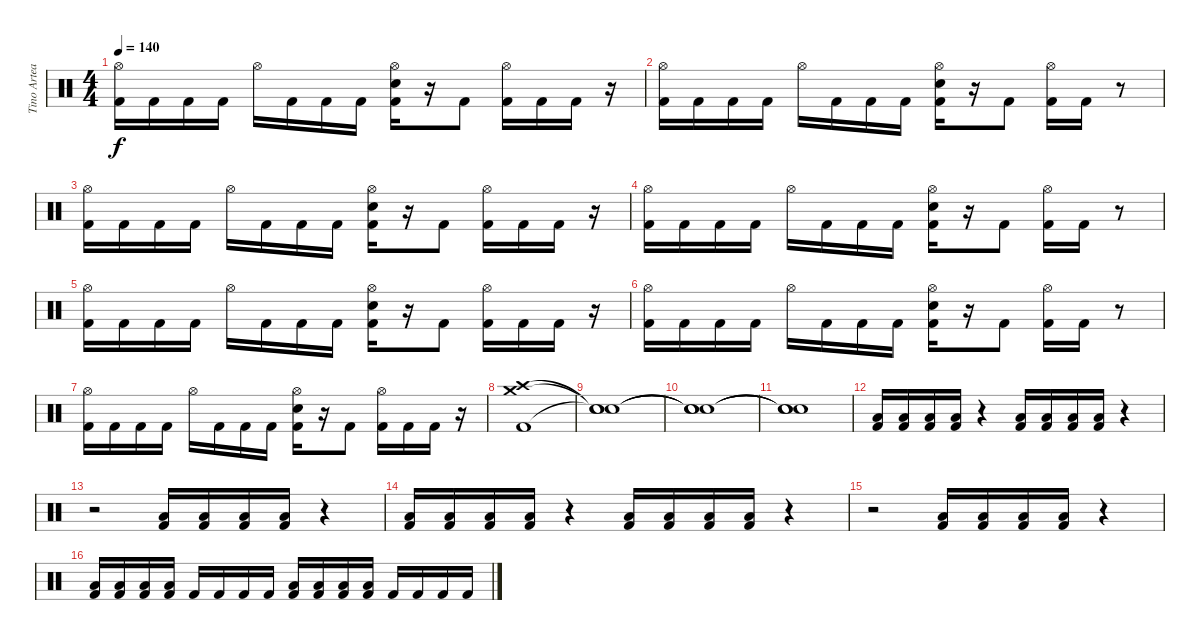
\track ("Tino Arteaga" "Tino Artea") {instrument percussion}
\staff {score}
\articulation defaults
\ts (4 4)
\tempo 140
\clef neutral
\ks c
("Hi-Hat (open)" "Kick (hit) 2").16{dy f} "Kick (hit) 2".16 "Kick (hit) 2".16 "Kick (hit) 2".16 "Hi-Hat (open)".16 "Kick (hit) 2".16 "Kick (hit) 2".16 "Kick (hit) 2".16 ("Hi-Hat (open)" "Electric Snare (hit)" "Kick (hit) 2").16 r.16 "Kick (hit) 2".8 ("Hi-Hat (open)" "Kick (hit) 2").16 "Kick (hit) 2".16 "Kick (hit) 2".16 r.16 |
("Hi-Hat (open)" "Kick (hit) 2").16 "Kick (hit) 2".16 "Kick (hit) 2".16 "Kick (hit) 2".16 "Hi-Hat (open)".16 "Kick (hit) 2".16 "Kick (hit) 2".16 "Kick (hit) 2".16 ("Hi-Hat (open)" "Electric Snare (hit)" "Kick (hit) 2").16 r.16 "Kick (hit) 2".8 ("Hi-Hat (open)" "Kick (hit) 2").16 "Kick (hit) 2".16 r.8 |
("Hi-Hat (open)" "Kick (hit) 2").16 "Kick (hit) 2".16 "Kick (hit) 2".16 "Kick (hit) 2".16 "Hi-Hat (open)".16 "Kick (hit) 2".16 "Kick (hit) 2".16 "Kick (hit) 2".16 ("Hi-Hat (open)" "Electric Snare (hit)" "Kick (hit) 2").16 r.16 "Kick (hit) 2".8 ("Hi-Hat (open)" "Kick (hit) 2").16 "Kick (hit) 2".16 "Kick (hit) 2".16 r.16 |
("Hi-Hat (open)" "Kick (hit) 2").16 "Kick (hit) 2".16 "Kick (hit) 2".16 "Kick (hit) 2".16 "Hi-Hat (open)".16 "Kick (hit) 2".16 "Kick (hit) 2".16 "Kick (hit) 2".16 ("Hi-Hat (open)" "Electric Snare (hit)" "Kick (hit) 2").16 r.16 "Kick (hit) 2".8 ("Hi-Hat (open)" "Kick (hit) 2").16 "Kick (hit) 2".16 r.8 |
("Hi-Hat (open)" "Kick (hit) 2").16 "Kick (hit) 2".16 "Kick (hit) 2".16 "Kick (hit) 2".16 "Hi-Hat (open)".16 "Kick (hit) 2".16 "Kick (hit) 2".16 "Kick (hit) 2".16 ("Hi-Hat (open)" "Electric Snare (hit)" "Kick (hit) 2").16 r.16 "Kick (hit) 2".8 ("Hi-Hat (open)" "Kick (hit) 2").16 "Kick (hit) 2".16 "Kick (hit) 2".16 r.16 |
("Hi-Hat (open)" "Kick (hit) 2").16 "Kick (hit) 2".16 "Kick (hit) 2".16 "Kick (hit) 2".16 "Hi-Hat (open)".16 "Kick (hit) 2".16 "Kick (hit) 2".16 "Kick (hit) 2".16 ("Hi-Hat (open)" "Electric Snare (hit)" "Kick (hit) 2").16 r.16 "Kick (hit) 2".8 ("Hi-Hat (open)" "Kick (hit) 2").16 "Kick (hit) 2".16 r.8 |
("Hi-Hat (open)" "Kick (hit) 2").16 "Kick (hit) 2".16 "Kick (hit) 2".16 "Kick (hit) 2".16 "Hi-Hat (open)".16 "Kick (hit) 2".16 "Kick (hit) 2".16 "Kick (hit) 2".16 ("Hi-Hat (open)" "Electric Snare (hit)" "Kick (hit) 2").16 r.16 "Kick (hit) 2".8 ("Hi-Hat (open)" "Kick (hit) 2").16 "Kick (hit) 2".16 "Kick (hit) 2".16 r.16 |
("Crash medium (hit)" "Crash high (hit)" "Kick (hit) 2").1 |
("Snare (hit)"{t} "Snare (hit)"{t} "Snare (hit)"{t}).1 |
("Snare (hit)"{t} "Snare (hit)"{t} "Snare (hit)"{t}).1 |
("Snare (hit)"{t} "Snare (hit)"{t} "Snare (hit)"{t}).1 |
("Low Floor Tom (hit)" "Kick (hit) 2").16 ("Low Floor Tom (hit)" "Kick (hit) 2").16 ("Low Floor Tom (hit)" "Kick (hit) 2").16 ("Low Floor Tom (hit)" "Kick (hit) 2").16 r.4 ("Low Floor Tom (hit)" "Kick (hit) 2").16 ("Low Floor Tom (hit)" "Kick (hit) 2").16 ("Low Floor Tom (hit)" "Kick (hit) 2").16 ("Low Floor Tom (hit)" "Kick (hit) 2").16 r.4 |
r.2 ("Low Floor Tom (hit)" "Kick (hit) 2").16 ("Low Floor Tom (hit)" "Kick (hit) 2").16 ("Low Floor Tom (hit)" "Kick (hit) 2").16 ("Low Floor Tom (hit)" "Kick (hit) 2").16 r.4 |
("Low Floor Tom (hit)" "Kick (hit) 2").16 ("Low Floor Tom (hit)" "Kick (hit) 2").16 ("Low Floor Tom (hit)" "Kick (hit) 2").16 ("Low Floor Tom (hit)" "Kick (hit) 2").16 r.4 ("Low Floor Tom (hit)" "Kick (hit) 2").16 ("Low Floor Tom (hit)" "Kick (hit) 2").16 ("Low Floor Tom (hit)" "Kick (hit) 2").16 ("Low Floor Tom (hit)" "Kick (hit) 2").16 r.4 |
r.2 ("Low Floor Tom (hit)" "Kick (hit) 2").16 ("Low Floor Tom (hit)" "Kick (hit) 2").16 ("Low Floor Tom (hit)" "Kick (hit) 2").16 ("Low Floor Tom (hit)" "Kick (hit) 2").16 r.4 |
("Low Floor Tom (hit)" "Kick (hit) 2").16 ("Low Floor Tom (hit)" "Kick (hit) 2").16 ("Low Floor Tom (hit)" "Kick (hit) 2").16 ("Low Floor Tom (hit)" "Kick (hit) 2").16 "Kick (hit) 2".16 "Kick (hit) 2".16 "Kick (hit) 2".16 "Kick (hit) 2".16 ("Low Floor Tom (hit)" "Kick (hit) 2").16 ("Low Floor Tom (hit)" "Kick (hit) 2").16 ("Low Floor Tom (hit)" "Kick (hit) 2").16 ("Low Floor Tom (hit)" "Kick (hit) 2").16 "Kick (hit) 2".16 "Kick (hit) 2".16 "Kick (hit) 2".16 "Kick (hit) 2".16
